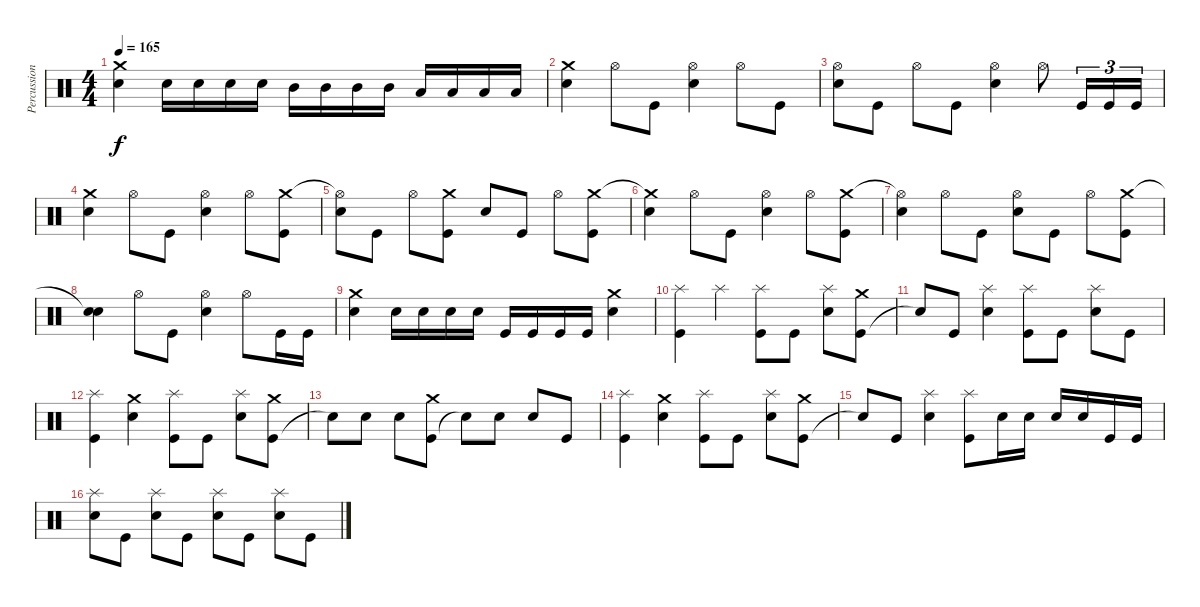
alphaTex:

\track ("Percussions" "Percussion") {instrument percussion}
\staff {score}
\articulation defaults
\ts (4 4)
\tempo 165
\clef neutral
\ks c
("Electric Snare (hit)" "Crash medium (hit)").4{dy f} "Electric Snare (hit)".16 "Electric Snare (hit)".16 "Electric Snare (hit)".16 "Electric Snare (hit)".16 "Mid Tom (hit)".16 "Mid Tom (hit)".16 "Mid Tom (hit)".16 "Mid Tom (hit)".16 "Low Tom (hit)".16 "Low Tom (hit)".16 "Low Tom (hit)".16 "Low Tom (hit)".16 |
("Electric Snare (hit)" "Crash medium (hit)").4 "Hi-Hat (open)".8 "Kick (hit)".8 ("Electric Snare (hit)" "Hi-Hat (open)").4 "Hi-Hat (open)".8 "Kick (hit)".8 |
("Electric Snare (hit)" "Hi-Hat (open)").8 "Kick (hit)".8 "Hi-Hat (open)".8 "Kick (hit)".8 ("Electric Snare (hit)" "Hi-Hat (open)").4 "Hi-Hat (open)".8 "Kick (hit)".16{tu (3 2)} "Kick (hit)".16{tu (3 2)} "Kick (hit)".16{tu (3 2)} |
("Electric Snare (hit)" "Crash medium (hit)").4 "Hi-Hat (open)".8 "Kick (hit)".8 ("Electric Snare (hit)" "Hi-Hat (open)").4 "Hi-Hat (open)".8 ("Kick (hit)" "Crash medium (hit)").8 |
("Electric Snare (hit)" "Hi-Hat (open)"{t}).8 "Kick (hit)".8 "Hi-Hat (open)".8 ("Kick (hit)" "Crash medium (hit)").8 "Electric Snare (hit)".8 "Kick (hit)".8 "Hi-Hat (open)".8 ("Kick (hit)" "Crash medium (hit)").8 |
("Electric Snare (hit)" "Crash medium (hit)"{t}).4 "Hi-Hat (open)".8 "Kick (hit)".8 ("Electric Snare (hit)" "Hi-Hat (open)").4 "Hi-Hat (open)".8 ("Kick (hit)" "Crash medium (hit)").8 |
("Electric Snare (hit)" "Hi-Hat (open)"{t}).4 "Hi-Hat (open)".8 "Kick (hit)".8 ("Electric Snare (hit)" "Hi-Hat (open)").8 "Kick (hit)".8 "Hi-Hat (open)".8 ("Kick (hit)" "Crash medium (hit)").8 |
("Electric Snare (hit)" "Snare (hit)"{t}).4 "Hi-Hat (open)".8 "Kick (hit)".8 ("Electric Snare (hit)" "Hi-Hat (open)").4 "Hi-Hat (open)".8 "Kick (hit)".16 "Kick (hit)".16 |
("Electric Snare (hit)" "Crash medium (hit)").4 "Electric Snare (hit)".16 "Electric Snare (hit)".16 "Electric Snare (hit)".16 "Electric Snare (hit)".16 "Kick (hit)".16 "Kick (hit)".16 "Kick (hit)".16 "Kick (hit)".16 ("Electric Snare (hit)" "Crash medium (hit)").4 |
("Kick (hit)" "Splash (hit)").4 "Splash (hit)".4 ("Kick (hit)" "Splash (hit)").8 "Kick (hit)".8 ("Electric Snare (hit)" "Splash (hit)").8 ("Kick (hit)" "Crash medium (hit)").8 |
"Snare (hit)"{t}.8 "Kick (hit)".8 ("Electric Snare (hit)" "Splash (hit)").4 ("Kick (hit)" "Splash (hit)").8 "Kick (hit)".8 ("Electric Snare (hit)" "Splash (hit)").8 "Kick (hit)".8 |
("Kick (hit)" "Splash (hit)").4 ("Electric Snare (hit)" "Crash medium (hit)").4 ("Kick (hit)" "Splash (hit)").8 "Kick (hit)".8 ("Electric Snare (hit)" "Splash (hit)").8 ("Kick (hit)" "Crash medium (hit)").8 |
"Snare (hit)"{t}.8 "Electric Snare (hit)".8 "Electric Snare (hit)".8 ("Kick (hit)" "Crash medium (hit)").8 "Snare (hit)"{t}.8 "Electric Snare (hit)".8 "Electric Snare (hit)".8 "Kick (hit)".8 |
("Kick (hit)" "Splash (hit)").4 ("Electric Snare (hit)" "Crash medium (hit)").4 ("Kick (hit)" "Splash (hit)").8 "Kick (hit)".8 ("Electric Snare (hit)" "Splash (hit)").8 ("Kick (hit)" "Crash medium (hit)").8 |
"Snare (hit)"{t}.8 "Kick (hit)".8 ("Electric Snare (hit)" "Splash (hit)").4 ("Kick (hit)" "Splash (hit)").8 "Electric Snare (hit)".16 "Electric Snare (hit)".16 "Electric Snare (hit)".16 "Electric Snare (hit)".16 "Kick (hit)".16 "Kick (hit)".16 |
("Electric Snare (hit)" "Splash (hit)").8 "Kick (hit)".8 ("Electric Snare (hit)" "Splash (hit)").8 "Kick (hit)".8 ("Electric Snare (hit)" "Splash (hit)").8 "Kick (hit)".8 ("Electric Snare (hit)" "Splash (hit)").8 "Kick (hit)".8
